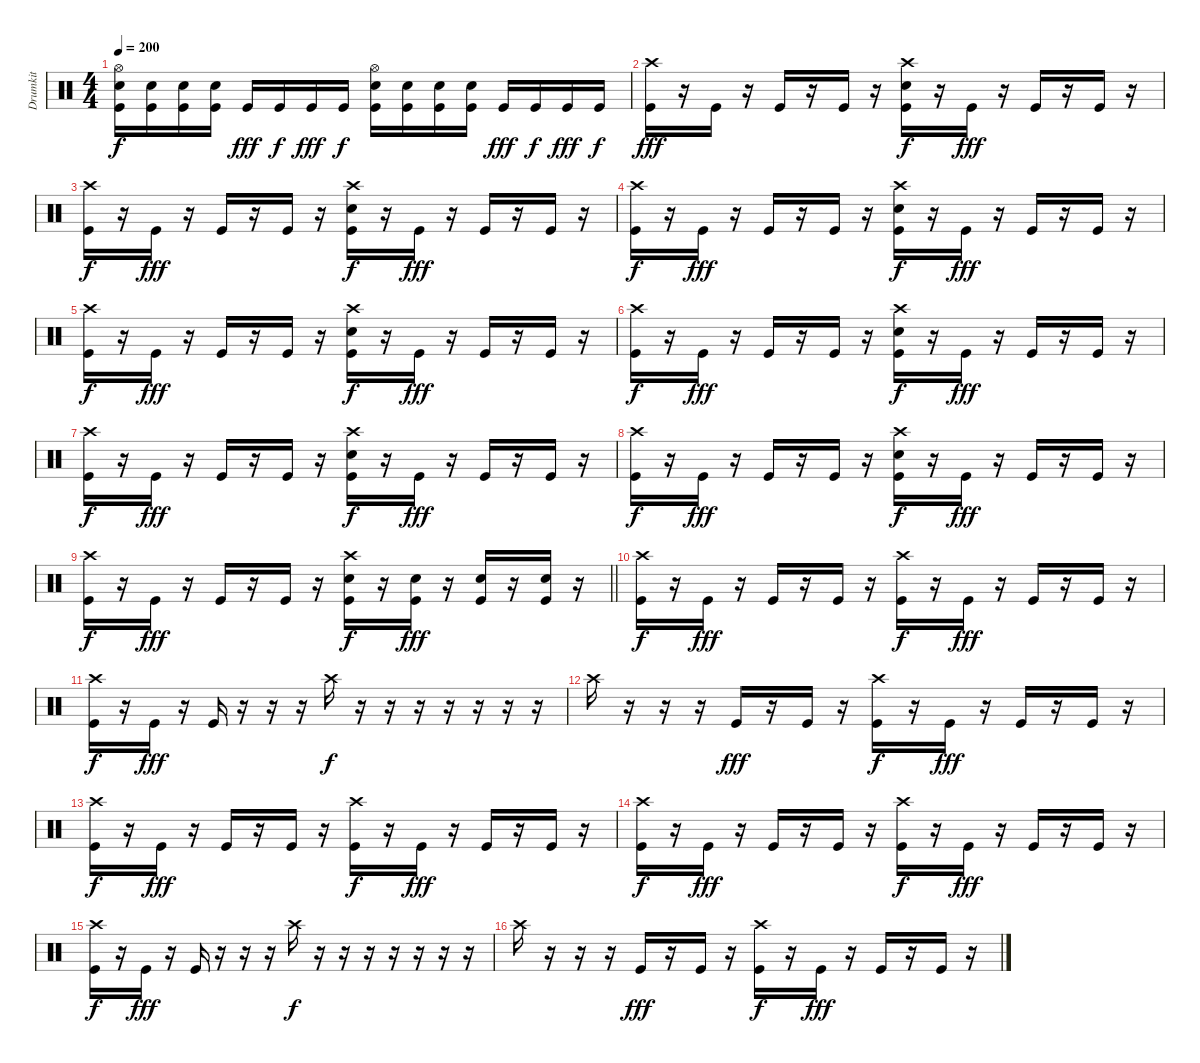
\track ("Drumkit" "Drumkit") {instrument percussion}
\staff {score}
\articulation defaults
\ts (4 4)
\tempo 200
\clef neutral
\ks c
("Hi-Hat (open)" "Snare (hit) 2" "Kick (hit)").16{dy f} ("Snare (hit) 2" "Kick (hit)").16 ("Snare (hit) 2" "Kick (hit)").16 ("Snare (hit) 2" "Kick (hit)").16 "Kick (hit)".16{dy fff} "Kick (hit)".16{dy f} "Kick (hit)".16{dy fff} "Kick (hit)".16{dy f} ("Hi-Hat (open)" "Snare (hit) 2" "Kick (hit)").16 ("Snare (hit) 2" "Kick (hit)").16 ("Snare (hit) 2" "Kick (hit)").16 ("Snare (hit) 2" "Kick (hit)").16 "Kick (hit)".16{dy fff} "Kick (hit)".16{dy f} "Kick (hit)".16{dy fff} "Kick (hit)".16{dy f} |
("Crash high (hit)" "Kick (hit)").16{dy fff} r.16 "Kick (hit)".16 r.16 "Kick (hit)".16 r.16 "Kick (hit)".16 r.16 ("Crash high (hit)" "Snare (hit) 2" "Kick (hit)").16{dy f} r.16 "Kick (hit)".16{dy fff} r.16 "Kick (hit)".16 r.16 "Kick (hit)".16 r.16 |
("Crash high (hit)" "Kick (hit)").16{dy f} r.16 "Kick (hit)".16{dy fff} r.16 "Kick (hit)".16 r.16 "Kick (hit)".16 r.16 ("Crash high (hit)" "Snare (hit) 2" "Kick (hit)").16{dy f} r.16 "Kick (hit)".16{dy fff} r.16 "Kick (hit)".16 r.16 "Kick (hit)".16 r.16 |
("Crash high (hit)" "Kick (hit)").16{dy f} r.16 "Kick (hit)".16{dy fff} r.16 "Kick (hit)".16 r.16 "Kick (hit)".16 r.16 ("Crash high (hit)" "Snare (hit) 2" "Kick (hit)").16{dy f} r.16 "Kick (hit)".16{dy fff} r.16 "Kick (hit)".16 r.16 "Kick (hit)".16 r.16 |
("Crash high (hit)" "Kick (hit)").16{dy f} r.16 "Kick (hit)".16{dy fff} r.16 "Kick (hit)".16 r.16 "Kick (hit)".16 r.16 ("Crash high (hit)" "Snare (hit) 2" "Kick (hit)").16{dy f} r.16 "Kick (hit)".16{dy fff} r.16 "Kick (hit)".16 r.16 "Kick (hit)".16 r.16 |
("Crash high (hit)" "Kick (hit)").16{dy f} r.16 "Kick (hit)".16{dy fff} r.16 "Kick (hit)".16 r.16 "Kick (hit)".16 r.16 ("Crash high (hit)" "Snare (hit) 2" "Kick (hit)").16{dy f} r.16 "Kick (hit)".16{dy fff} r.16 "Kick (hit)".16 r.16 "Kick (hit)".16 r.16 |
("Crash high (hit)" "Kick (hit)").16{dy f} r.16 "Kick (hit)".16{dy fff} r.16 "Kick (hit)".16 r.16 "Kick (hit)".16 r.16 ("Crash high (hit)" "Snare (hit) 2" "Kick (hit)").16{dy f} r.16 "Kick (hit)".16{dy fff} r.16 "Kick (hit)".16 r.16 "Kick (hit)".16 r.16 |
("Crash high (hit)" "Kick (hit)").16{dy f} r.16 "Kick (hit)".16{dy fff} r.16 "Kick (hit)".16 r.16 "Kick (hit)".16 r.16 ("Crash high (hit)" "Snare (hit) 2" "Kick (hit)").16{dy f} r.16 "Kick (hit)".16{dy fff} r.16 "Kick (hit)".16 r.16 "Kick (hit)".16 r.16 |
\barLineRight lightlight
("Crash high (hit)" "Kick (hit)").16{dy f} r.16 "Kick (hit)".16{dy fff} r.16 "Kick (hit)".16 r.16 "Kick (hit)".16 r.16 ("Crash high (hit)" "Snare (hit) 2" "Kick (hit)").16{dy f} r.16 ("Snare (hit) 2" "Kick (hit)").16{dy fff} r.16 ("Snare (hit) 2" "Kick (hit)").16 r.16 ("Snare (hit) 2" "Kick (hit)").16 r.16 |
("Crash high (hit)" "Kick (hit)").16{dy f} r.16 "Kick (hit)".16{dy fff} r.16 "Kick (hit)".16 r.16 "Kick (hit)".16 r.16 ("Crash high (hit)" "Kick (hit)").16{dy f} r.16 "Kick (hit)".16{dy fff} r.16 "Kick (hit)".16 r.16 "Kick (hit)".16 r.16 |
("Crash high (hit)" "Kick (hit)").16{dy f} r.16 "Kick (hit)".16{dy fff} r.16 "Kick (hit)".16 r.16 r.16 r.16 "Crash high (hit)".16{dy f} r.16 r.16 r.16 r.16 r.16 r.16 r.16 |
"Crash high (hit)".16 r.16 r.16 r.16 "Kick (hit)".16{dy fff} r.16 "Kick (hit)".16 r.16 ("Crash high (hit)" "Kick (hit)").16{dy f} r.16 "Kick (hit)".16{dy fff} r.16 "Kick (hit)".16 r.16 "Kick (hit)".16 r.16 |
("Crash high (hit)" "Kick (hit)").16{dy f} r.16 "Kick (hit)".16{dy fff} r.16 "Kick (hit)".16 r.16 "Kick (hit)".16 r.16 ("Crash high (hit)" "Kick (hit)").16{dy f} r.16 "Kick (hit)".16{dy fff} r.16 "Kick (hit)".16 r.16 "Kick (hit)".16 r.16 |
("Crash high (hit)" "Kick (hit)").16{dy f} r.16 "Kick (hit)".16{dy fff} r.16 "Kick (hit)".16 r.16 "Kick (hit)".16 r.16 ("Crash high (hit)" "Kick (hit)").16{dy f} r.16 "Kick (hit)".16{dy fff} r.16 "Kick (hit)".16 r.16 "Kick (hit)".16 r.16 |
("Crash high (hit)" "Kick (hit)").16{dy f} r.16 "Kick (hit)".16{dy fff} r.16 "Kick (hit)".16 r.16 r.16 r.16 "Crash high (hit)".16{dy f} r.16 r.16 r.16 r.16 r.16 r.16 r.16 |
"Crash high (hit)".16 r.16 r.16 r.16 "Kick (hit)".16{dy fff} r.16 "Kick (hit)".16 r.16 ("Crash high (hit)" "Kick (hit)").16{dy f} r.16 "Kick (hit)".16{dy fff} r.16 "Kick (hit)".16 r.16 "Kick (hit)".16 r.16
